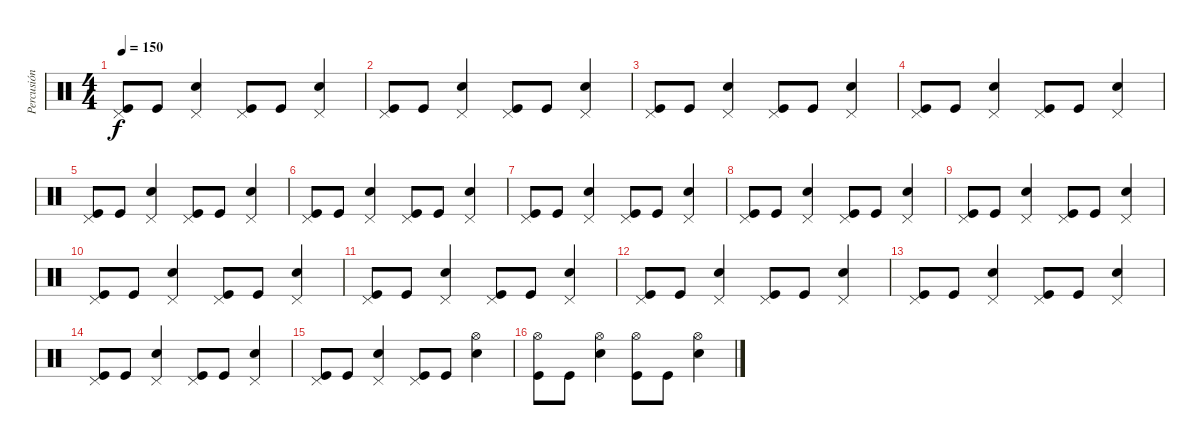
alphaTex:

\track ("Percusión" "Percusión") {instrument percussion}
\staff {score}
\articulation defaults
\ts (4 4)
\tempo 150
\clef neutral
\ks c
("Pedal Hi-Hat (hit)" "Kick (hit)").8{dy f} "Kick (hit)".8 ("Pedal Hi-Hat (hit)" "Snare (hit) 2").4 ("Pedal Hi-Hat (hit)" "Kick (hit)").8 "Kick (hit)".8 ("Pedal Hi-Hat (hit)" "Snare (hit) 2").4 |
("Pedal Hi-Hat (hit)" "Kick (hit)").8 "Kick (hit)".8 ("Pedal Hi-Hat (hit)" "Snare (hit) 2").4 ("Pedal Hi-Hat (hit)" "Kick (hit)").8 "Kick (hit)".8 ("Pedal Hi-Hat (hit)" "Snare (hit) 2").4 |
("Pedal Hi-Hat (hit)" "Kick (hit)").8 "Kick (hit)".8 ("Pedal Hi-Hat (hit)" "Snare (hit) 2").4 ("Pedal Hi-Hat (hit)" "Kick (hit)").8 "Kick (hit)".8 ("Pedal Hi-Hat (hit)" "Snare (hit) 2").4 |
("Pedal Hi-Hat (hit)" "Kick (hit)").8 "Kick (hit)".8 ("Pedal Hi-Hat (hit)" "Snare (hit) 2").4 ("Pedal Hi-Hat (hit)" "Kick (hit)").8 "Kick (hit)".8 ("Pedal Hi-Hat (hit)" "Snare (hit) 2").4 |
("Pedal Hi-Hat (hit)" "Kick (hit)").8 "Kick (hit)".8 ("Pedal Hi-Hat (hit)" "Snare (hit) 2").4 ("Pedal Hi-Hat (hit)" "Kick (hit)").8 "Kick (hit)".8 ("Pedal Hi-Hat (hit)" "Snare (hit) 2").4 |
("Pedal Hi-Hat (hit)" "Kick (hit)").8 "Kick (hit)".8 ("Pedal Hi-Hat (hit)" "Snare (hit) 2").4 ("Pedal Hi-Hat (hit)" "Kick (hit)").8 "Kick (hit)".8 ("Pedal Hi-Hat (hit)" "Snare (hit) 2").4 |
("Pedal Hi-Hat (hit)" "Kick (hit)").8 "Kick (hit)".8 ("Pedal Hi-Hat (hit)" "Snare (hit) 2").4 ("Pedal Hi-Hat (hit)" "Kick (hit)").8 "Kick (hit)".8 ("Pedal Hi-Hat (hit)" "Snare (hit) 2").4 |
("Pedal Hi-Hat (hit)" "Kick (hit)").8 "Kick (hit)".8 ("Pedal Hi-Hat (hit)" "Snare (hit) 2").4 ("Pedal Hi-Hat (hit)" "Kick (hit)").8 "Kick (hit)".8 ("Pedal Hi-Hat (hit)" "Snare (hit) 2").4 |
("Pedal Hi-Hat (hit)" "Kick (hit)").8 "Kick (hit)".8 ("Pedal Hi-Hat (hit)" "Snare (hit) 2").4 ("Pedal Hi-Hat (hit)" "Kick (hit)").8 "Kick (hit)".8 ("Pedal Hi-Hat (hit)" "Snare (hit) 2").4 |
("Pedal Hi-Hat (hit)" "Kick (hit)").8 "Kick (hit)".8 ("Pedal Hi-Hat (hit)" "Snare (hit) 2").4 ("Pedal Hi-Hat (hit)" "Kick (hit)").8 "Kick (hit)".8 ("Pedal Hi-Hat (hit)" "Snare (hit) 2").4 |
("Pedal Hi-Hat (hit)" "Kick (hit)").8 "Kick (hit)".8 ("Pedal Hi-Hat (hit)" "Snare (hit) 2").4 ("Pedal Hi-Hat (hit)" "Kick (hit)").8 "Kick (hit)".8 ("Pedal Hi-Hat (hit)" "Snare (hit) 2").4 |
("Pedal Hi-Hat (hit)" "Kick (hit)").8 "Kick (hit)".8 ("Pedal Hi-Hat (hit)" "Snare (hit) 2").4 ("Pedal Hi-Hat (hit)" "Kick (hit)").8 "Kick (hit)".8 ("Pedal Hi-Hat (hit)" "Snare (hit) 2").4 |
("Pedal Hi-Hat (hit)" "Kick (hit)").8 "Kick (hit)".8 ("Pedal Hi-Hat (hit)" "Snare (hit) 2").4 ("Pedal Hi-Hat (hit)" "Kick (hit)").8 "Kick (hit)".8 ("Pedal Hi-Hat (hit)" "Snare (hit) 2").4 |
("Pedal Hi-Hat (hit)" "Kick (hit)").8 "Kick (hit)".8 ("Pedal Hi-Hat (hit)" "Snare (hit) 2").4 ("Pedal Hi-Hat (hit)" "Kick (hit)").8 "Kick (hit)".8 ("Pedal Hi-Hat (hit)" "Snare (hit) 2").4 |
("Pedal Hi-Hat (hit)" "Kick (hit)").8 "Kick (hit)".8 ("Pedal Hi-Hat (hit)" "Snare (hit) 2").4 ("Pedal Hi-Hat (hit)" "Kick (hit)").8 "Kick (hit)".8 ("Hi-Hat (open)" "Snare (hit) 2").4 |
("Hi-Hat (open)" "Kick (hit)").8 "Kick (hit)".8 ("Hi-Hat (open)" "Snare (hit) 2").4 ("Hi-Hat (open)" "Kick (hit)").8 "Kick (hit)".8 ("Hi-Hat (open)" "Snare (hit) 2").4
